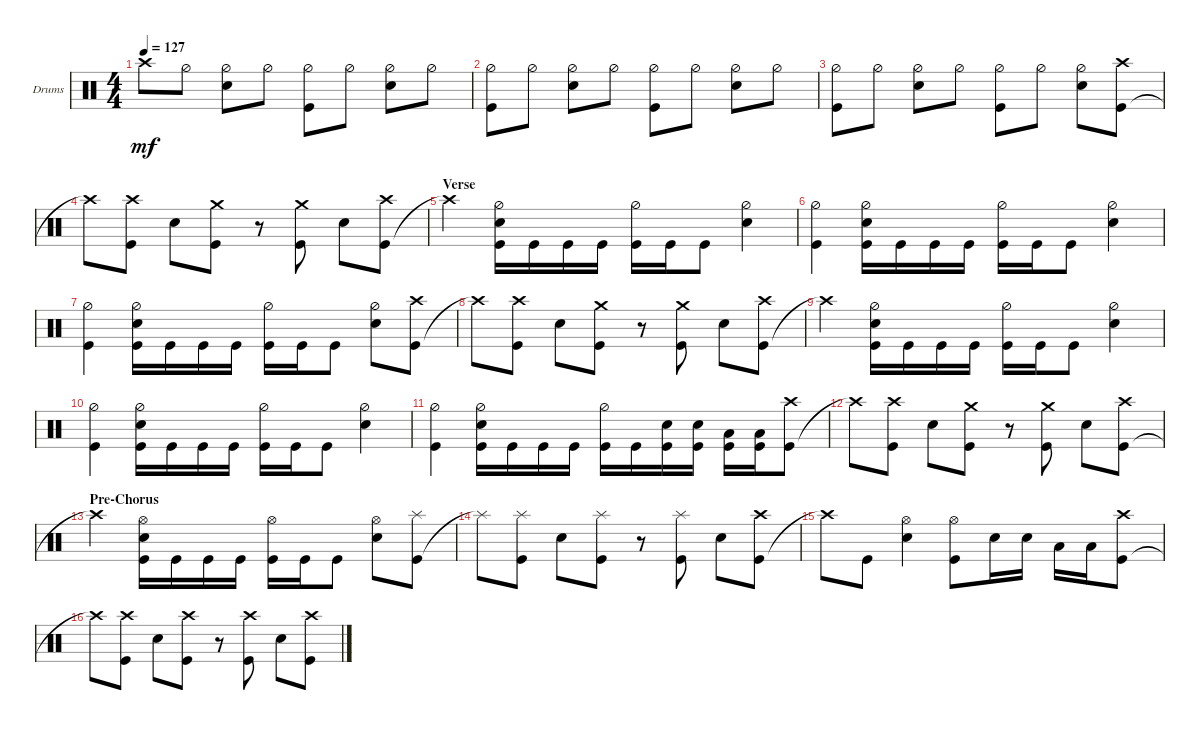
\defaultSystemsLayout 4
\bracketExtendMode groupsimilarinstruments
\firstSystemTrackNameOrientation horizontal
\otherSystemsTrackNameOrientation horizontal
\track ("Drumkit" "Drums") {instrument percussion}
\staff {score}
\articulation defaults
\ts (4 4)
\tempo 127
\clef neutral
\ks c "Crash high (hit)"{t}.8{dy mf} "Hi-Hat (half)".8
("Snare (hit) 2" "Hi-Hat (half)").8 "Hi-Hat (half)".8 ("Hi-Hat (half)" "Kick (hit)").8 "Hi-Hat (half)".8 ("Hi-Hat (half)" "Snare (hit) 2").8 "Hi-Hat (half)".8 |
("Hi-Hat (half)" "Kick (hit)").8 "Hi-Hat (half)".8 ("Hi-Hat (half)" "Snare (hit) 2").8 "Hi-Hat (half)".8 ("Hi-Hat (half)" "Kick (hit)").8 "Hi-Hat (half)".8 ("Hi-Hat (half)" "Snare (hit) 2").8 "Hi-Hat (half)".8 |
("Hi-Hat (half)" "Kick (hit)").8 "Hi-Hat (half)".8 ("Hi-Hat (half)" "Snare (hit) 2").8 "Hi-Hat (half)".8 ("Hi-Hat (half)" "Kick (hit)").8 "Hi-Hat (half)".8 ("Hi-Hat (half)" "Snare (hit) 2").8 ("Kick (hit)" "Crash high (hit)").8 |
"Crash high (hit)"{t}.8 ("Crash high (hit)" "Kick (hit)").8 "Snare (hit) 2".8 ("Kick (hit)" "Crash medium (hit)").8 r.8 ("Kick (hit)" "Crash medium (hit)").8 "Snare (hit) 2".8 ("Kick (hit)" "Crash high (hit)").8 |
\section ("" "Verse")
\scale
0.333333 "Crash high (hit)"{t}.4 ("Kick (hit)" "Snare (hit) 2" "Hi-Hat (half)").16 "Kick (hit)".16 "Kick (hit)".16 "Kick (hit)".16 ("Kick (hit)" "Hi-Hat (half)").16 "Kick (hit)".16 "Kick (hit)".8 ("Snare (hit) 2" "Hi-Hat (half)").4 |
\scale
0.333333 ("Kick (hit)" "Hi-Hat (half)").4 ("Kick (hit)" "Snare (hit) 2" "Hi-Hat (half)").16 "Kick (hit)".16 "Kick (hit)".16 "Kick (hit)".16 ("Kick (hit)" "Hi-Hat (half)").16 "Kick (hit)".16 "Kick (hit)".8 ("Snare (hit) 2" "Hi-Hat (half)").4 |
\scale
0.333333 ("Kick (hit)" "Hi-Hat (half)").4 ("Kick (hit)" "Snare (hit) 2" "Hi-Hat (half)").16 "Kick (hit)".16 "Kick (hit)".16 "Kick (hit)".16 ("Kick (hit)" "Hi-Hat (half)").16 "Kick (hit)".16 "Kick (hit)".8 ("Snare (hit) 2" "Hi-Hat (half)").8 ("Kick (hit)" "Crash high (hit)").8 |
\scale
0.333333 "Crash high (hit)"{t}.8 ("Crash high (hit)" "Kick (hit)").8 "Snare (hit) 2".8 ("Kick (hit)" "Crash medium (hit)").8 r.8 ("Kick (hit)" "Crash medium (hit)").8 "Snare (hit) 2".8 ("Kick (hit)" "Crash high (hit)").8 |
\scale
0.333333 "Crash high (hit)"{t}.4 ("Kick (hit)" "Snare (hit) 2" "Hi-Hat (half)").16 "Kick (hit)".16 "Kick (hit)".16 "Kick (hit)".16 ("Kick (hit)" "Hi-Hat (half)").16 "Kick (hit)".16 "Kick (hit)".8 ("Snare (hit) 2" "Hi-Hat (half)").4 |
\scale
0.333333 ("Kick (hit)" "Hi-Hat (half)").4 ("Kick (hit)" "Snare (hit) 2" "Hi-Hat (half)").16 "Kick (hit)".16 "Kick (hit)".16 "Kick (hit)".16 ("Kick (hit)" "Hi-Hat (half)").16 "Kick (hit)".16 "Kick (hit)".8 ("Snare (hit) 2" "Hi-Hat (half)").4 |
\scale
0.333333 ("Kick (hit)" "Hi-Hat (half)").4 ("Kick (hit)" "Snare (hit) 2" "Hi-Hat (half)").16 "Kick (hit)".16 "Kick (hit)".16 "Kick (hit)".16 ("Kick (hit)" "Hi-Hat (half)").16 "Kick (hit)".16 ("Kick (hit)" "Snare (hit) 2").16 ("Snare (hit) 2" "Kick (hit)").16 ("Kick (hit)" "Low Tom (hit)").16 ("Kick (hit)" "Low Tom (hit)").16 ("Kick (hit)" "Crash high (hit)").8 |
\scale
0.333333 "Crash high (hit)"{t}.8 ("Crash high (hit)" "Kick (hit)").8 "Snare (hit) 2".8 ("Kick (hit)" "Crash medium (hit)").8 r.8 ("Kick (hit)" "Crash medium (hit)").8 "Snare (hit) 2".8 ("Kick (hit)" "Crash high (hit)").8 |
\section ("" "Pre-Chorus")
\scale
0.333333 "Crash high (hit)"{t}.4 ("Kick (hit)" "Snare (hit) 2" "Hi-Hat (open)").16 "Kick (hit)".16 "Kick (hit)".16 "Kick (hit)".16 ("Kick (hit)" "Hi-Hat (open)").16 "Kick (hit)".16 "Kick (hit)".8 ("Snare (hit) 2" "Hi-Hat (open)").8 ("Kick (hit)" "Splash (hit)").8 |
\scale
0.333333 "Splash (hit)"{t}.8 ("Kick (hit)" "Splash (hit)").8 "Snare (hit) 2".8 ("Kick (hit)" "Splash (hit)").8 r.8 ("Kick (hit)" "Splash (hit)").8 "Snare (hit) 2".8 ("Kick (hit)" "Crash high (hit)").8 |
\scale
0.333333 "Crash high (hit)"{t}.8 "Kick (hit)".8 ("Snare (hit) 2" "Hi-Hat (open)").4 ("Kick (hit)" "Hi-Hat (open)").8 "Snare (hit) 2".16 "Snare (hit) 2".16 "Low Tom (hit)".16 "Low Tom (hit)".16 ("Kick (hit)" "Crash high (hit)").8 |
\scale
0.333333 "Crash high (hit)"{t}.8 ("Kick (hit)" "Crash high (hit)").8 "Snare (hit) 2".8 ("Kick (hit)" "Crash high (hit)").8 r.8 ("Kick (hit)" "Crash high (hit)").8 "Snare (hit) 2".8 ("Kick (hit)" "Crash high (hit)").8
